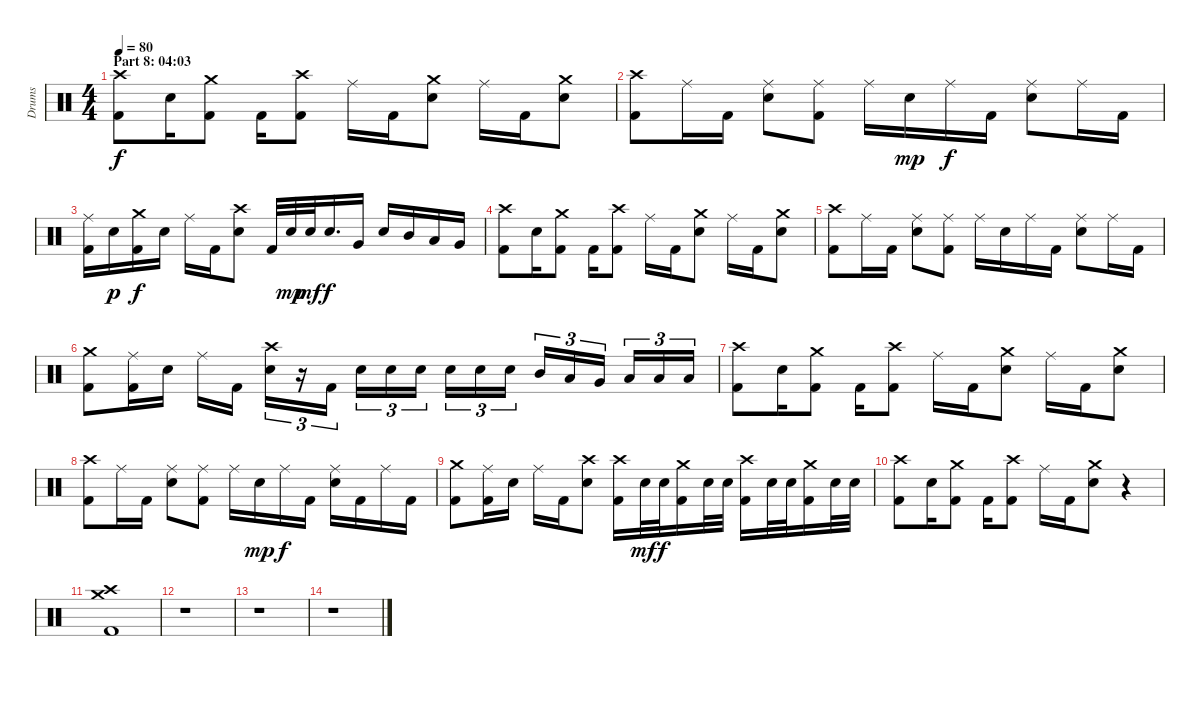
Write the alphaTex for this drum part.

\track ("Drums" "Drums") {instrument percussion}
\staff {score}
\articulation defaults
\ts (4 4)
\section ("" "Part 8: 04:03")
\tempo 80
\clef neutral
\ks c
("Crash high (hit)" "Kick (hit) 2").8{dy f} "Electric Snare (hit)".16 ("Crash medium (hit)" "Kick (hit) 2").8 "Kick (hit) 2".16 ("Crash high (hit)" "Kick (hit) 2").8 "Ride (middle)".16 "Kick (hit) 2".16 ("Crash medium (hit)" "Electric Snare (hit)").8 "Ride (middle)".16 "Kick (hit) 2".16 ("Crash medium (hit)" "Electric Snare (hit)").8 |
("Crash high (hit)" "Kick (hit) 2").8 "Ride (middle)".16 "Kick (hit) 2".16 ("Ride (middle)" "Electric Snare (hit)").8 ("Ride (middle)" "Kick (hit) 2").8 "Ride (middle)".16 "Electric Snare (hit)".16{dy mp} "Ride (middle)".16{dy f} "Kick (hit) 2".16 ("Ride (middle)" "Electric Snare (hit)").8 "Ride (middle)".16 "Kick (hit) 2".16 |
("Ride (middle)" "Kick (hit) 2").16 "Electric Snare (hit)".16{dy p} ("Crash medium (hit)" "Kick (hit) 2").16{dy f} "Electric Snare (hit)".16 "Ride (middle)".16 "Kick (hit) 2".16 ("Crash high (hit)" "Electric Snare (hit)").8 "Kick (hit) 2".32 "Electric Snare (hit)".32{dy mp} "Electric Snare (hit)".32{dy mf} "Electric Snare (hit)".16{d dy f} "Very Low Tom (hit)".16 "Electric Snare (hit)".16 "Mid Tom (hit)".16 "Low Tom (hit)".16 "Very Low Tom (hit)".16 |
("Crash high (hit)" "Kick (hit) 2").8 "Electric Snare (hit)".16 ("Crash medium (hit)" "Kick (hit) 2").8 "Kick (hit) 2".16 ("Crash high (hit)" "Kick (hit) 2").8 "Ride (middle)".16 "Kick (hit) 2".16 ("Crash medium (hit)" "Electric Snare (hit)").8 "Ride (middle)".16 "Kick (hit) 2".16 ("Crash medium (hit)" "Electric Snare (hit)").8 |
("Crash high (hit)" "Kick (hit) 2").8 "Ride (middle)".16 "Kick (hit) 2".16 ("Ride (middle)" "Electric Snare (hit)").8 ("Ride (middle)" "Kick (hit) 2").8 "Ride (middle)".16 "Electric Snare (hit)".16 "Ride (middle)".16 "Kick (hit) 2".16 ("Ride (middle)" "Electric Snare (hit)").8 "Ride (middle)".16 "Kick (hit) 2".16 |
("Crash medium (hit)" "Kick (hit) 2").8 ("Ride (middle)" "Kick (hit) 2").16 "Electric Snare (hit)".16 "Ride (middle)".16 "Kick (hit) 2".16{beam splitsecondary} ("Crash high (hit)" "Electric Snare (hit)").16{tu (3 2)} r.16{tu (3 2)} "Kick (hit) 2".16{tu (3 2)} "Electric Snare (hit)".16{tu (3 2)} "Electric Snare (hit)".16{tu (3 2)} "Electric Snare (hit)".16{tu (3 2) beam splitsecondary} "Electric Snare (hit)".16{tu (3 2)} "Electric Snare (hit)".16{tu (3 2)} "Electric Snare (hit)".16{tu (3 2)} "Mid Tom (hit)".16{tu (3 2)} "Low Tom (hit)".16{tu (3 2)} "Very Low Tom (hit)".16{tu (3 2) beam splitsecondary} "Low Floor Tom (hit)".16{tu (3 2)} "Low Floor Tom (hit)".16{tu (3 2)} "Low Floor Tom (hit)".16{tu (3 2)} |
("Crash high (hit)" "Kick (hit) 2").8 "Electric Snare (hit)".16 ("Crash medium (hit)" "Kick (hit) 2").8 "Kick (hit) 2".16 ("Crash high (hit)" "Kick (hit) 2").8 "Ride (middle)".16 "Kick (hit) 2".16 ("Crash medium (hit)" "Electric Snare (hit)").8 "Ride (middle)".16 "Kick (hit) 2".16 ("Crash medium (hit)" "Electric Snare (hit)").8 |
("Crash high (hit)" "Kick (hit) 2").8 "Ride (middle)".16 "Kick (hit) 2".16 ("Ride (middle)" "Electric Snare (hit)").8 ("Ride (middle)" "Kick (hit) 2").8 "Ride (middle)".16 "Electric Snare (hit)".16{dy mp} "Ride (middle)".16{dy f} "Kick (hit) 2".16 ("Ride (middle)" "Electric Snare (hit)").16 "Kick (hit) 2".16 "Ride (middle)".16 "Kick (hit) 2".16 |
("Crash medium (hit)" "Kick (hit) 2").8 ("Ride (middle)" "Kick (hit) 2").16 "Electric Snare (hit)".16 "Ride (middle)".16 "Kick (hit) 2".16 ("Crash high (hit)" "Electric Snare (hit)").8 ("Crash high (hit)" "Kick (hit) 2").16 "Electric Snare (hit)".32{dy mf} "Electric Snare (hit)".32{dy f} ("Crash medium (hit)" "Kick (hit) 2").16 "Electric Snare (hit)".32 "Electric Snare (hit)".32 ("Crash high (hit)" "Kick (hit) 2").16 "Electric Snare (hit)".32 "Electric Snare (hit)".32 ("Crash medium (hit)" "Kick (hit) 2").16 "Electric Snare (hit)".32 "Electric Snare (hit)".32 |
("Crash high (hit)" "Kick (hit) 2").8 "Electric Snare (hit)".16 ("Crash medium (hit)" "Kick (hit) 2").8 "Kick (hit) 2".16 ("Crash high (hit)" "Kick (hit) 2").8 "Ride (middle)".16 "Kick (hit) 2".16 ("Crash medium (hit)" "Electric Snare (hit)").8 r.4 |
("Crash high (hit)" "Crash medium (hit)" "Kick (hit) 2").1 |
r.1 |
r.1 |
r.1
